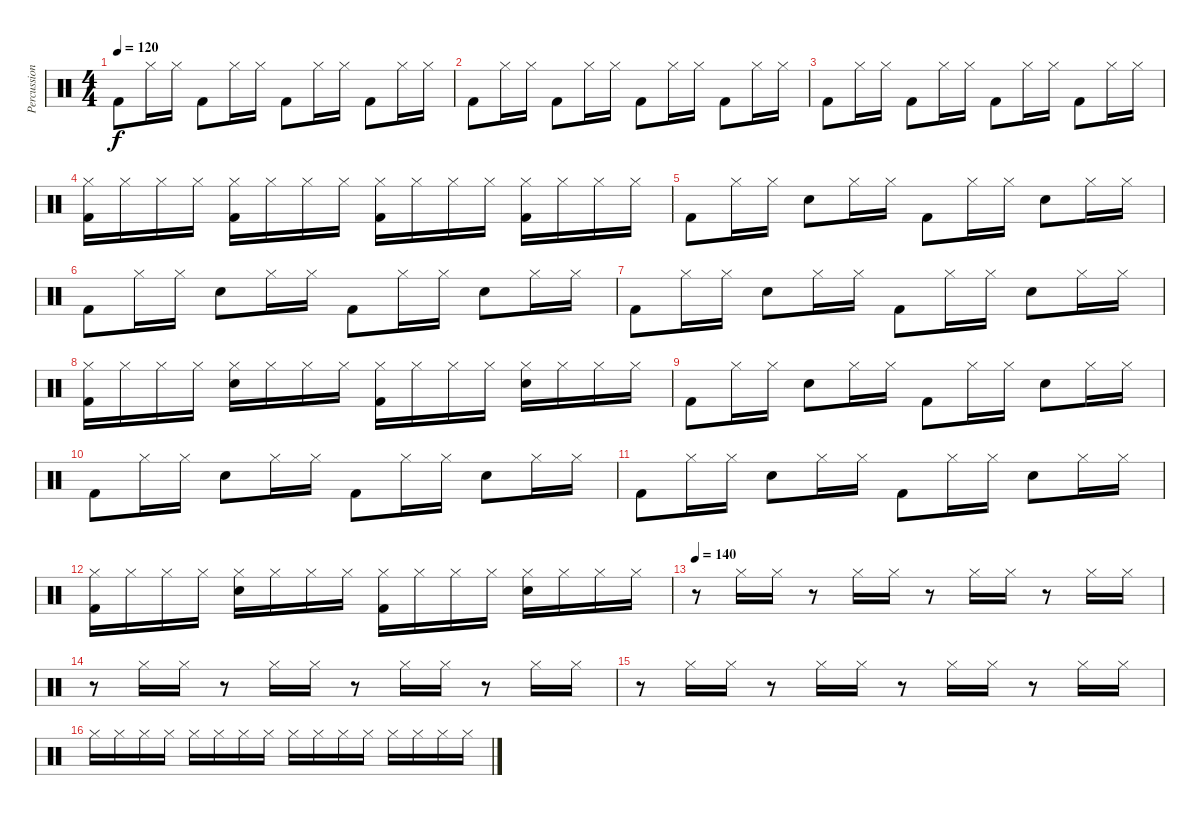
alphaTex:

\track ("Percussion" "Percussion") {instrument percussion}
\staff {score}
\articulation defaults
\ts (4 4)
\tempo 120
\clef neutral
\ks c "Kick (hit) 2".8{dy f} "Hi-Hat (closed)".16 "Hi-Hat (closed)".16 "Kick (hit) 2".8 "Hi-Hat (closed)".16 "Hi-Hat (closed)".16 "Kick (hit) 2".8 "Hi-Hat (closed)".16 "Hi-Hat (closed)".16 "Kick (hit) 2".8 "Hi-Hat (closed)".16 "Hi-Hat (closed)".16
|
"Kick (hit) 2".8 "Hi-Hat (closed)".16 "Hi-Hat (closed)".16 "Kick (hit) 2".8 "Hi-Hat (closed)".16 "Hi-Hat (closed)".16 "Kick (hit) 2".8 "Hi-Hat (closed)".16 "Hi-Hat (closed)".16 "Kick (hit) 2".8 "Hi-Hat (closed)".16 "Hi-Hat (closed)".16 |
"Kick (hit) 2".8 "Hi-Hat (closed)".16 "Hi-Hat (closed)".16 "Kick (hit) 2".8 "Hi-Hat (closed)".16 "Hi-Hat (closed)".16 "Kick (hit) 2".8 "Hi-Hat (closed)".16 "Hi-Hat (closed)".16 "Kick (hit) 2".8 "Hi-Hat (closed)".16 "Hi-Hat (closed)".16 |
("Hi-Hat (closed)" "Kick (hit) 2").16 "Hi-Hat (closed)".16 "Hi-Hat (closed)".16 "Hi-Hat (closed)".16 ("Hi-Hat (closed)" "Kick (hit) 2").16 "Hi-Hat (closed)".16 "Hi-Hat (closed)".16 "Hi-Hat (closed)".16 ("Hi-Hat (closed)" "Kick (hit) 2").16 "Hi-Hat (closed)".16 "Hi-Hat (closed)".16 "Hi-Hat (closed)".16 ("Hi-Hat (closed)" "Kick (hit) 2").16 "Hi-Hat (closed)".16 "Hi-Hat (closed)".16 "Hi-Hat (closed)".16 |
"Kick (hit) 2".8 "Hi-Hat (closed)".16 "Hi-Hat (closed)".16 "Snare (hit) 2".8 "Hi-Hat (closed)".16 "Hi-Hat (closed)".16 "Kick (hit) 2".8 "Hi-Hat (closed)".16 "Hi-Hat (closed)".16 "Snare (hit) 2".8 "Hi-Hat (closed)".16 "Hi-Hat (closed)".16 |
"Kick (hit) 2".8 "Hi-Hat (closed)".16 "Hi-Hat (closed)".16 "Snare (hit) 2".8 "Hi-Hat (closed)".16 "Hi-Hat (closed)".16 "Kick (hit) 2".8 "Hi-Hat (closed)".16 "Hi-Hat (closed)".16 "Snare (hit) 2".8 "Hi-Hat (closed)".16 "Hi-Hat (closed)".16 |
"Kick (hit) 2".8 "Hi-Hat (closed)".16 "Hi-Hat (closed)".16 "Snare (hit) 2".8 "Hi-Hat (closed)".16 "Hi-Hat (closed)".16 "Kick (hit) 2".8 "Hi-Hat (closed)".16 "Hi-Hat (closed)".16 "Snare (hit) 2".8 "Hi-Hat (closed)".16 "Hi-Hat (closed)".16 |
("Hi-Hat (closed)" "Kick (hit) 2").16 "Hi-Hat (closed)".16 "Hi-Hat (closed)".16 "Hi-Hat (closed)".16 ("Hi-Hat (closed)" "Snare (hit) 2").16 "Hi-Hat (closed)".16 "Hi-Hat (closed)".16 "Hi-Hat (closed)".16 ("Hi-Hat (closed)" "Kick (hit) 2").16 "Hi-Hat (closed)".16 "Hi-Hat (closed)".16 "Hi-Hat (closed)".16 ("Hi-Hat (closed)" "Snare (hit) 2").16 "Hi-Hat (closed)".16 "Hi-Hat (closed)".16 "Hi-Hat (closed)".16 |
"Kick (hit) 2".8 "Hi-Hat (closed)".16 "Hi-Hat (closed)".16 "Snare (hit) 2".8 "Hi-Hat (closed)".16 "Hi-Hat (closed)".16 "Kick (hit) 2".8 "Hi-Hat (closed)".16 "Hi-Hat (closed)".16 "Snare (hit) 2".8 "Hi-Hat (closed)".16 "Hi-Hat (closed)".16 |
"Kick (hit) 2".8 "Hi-Hat (closed)".16 "Hi-Hat (closed)".16 "Snare (hit) 2".8 "Hi-Hat (closed)".16 "Hi-Hat (closed)".16 "Kick (hit) 2".8 "Hi-Hat (closed)".16 "Hi-Hat (closed)".16 "Snare (hit) 2".8 "Hi-Hat (closed)".16 "Hi-Hat (closed)".16 |
"Kick (hit) 2".8 "Hi-Hat (closed)".16 "Hi-Hat (closed)".16 "Snare (hit) 2".8 "Hi-Hat (closed)".16 "Hi-Hat (closed)".16 "Kick (hit) 2".8 "Hi-Hat (closed)".16 "Hi-Hat (closed)".16 "Snare (hit) 2".8 "Hi-Hat (closed)".16 "Hi-Hat (closed)".16 |
("Hi-Hat (closed)" "Kick (hit) 2").16 "Hi-Hat (closed)".16 "Hi-Hat (closed)".16 "Hi-Hat (closed)".16 ("Hi-Hat (closed)" "Snare (hit) 2").16 "Hi-Hat (closed)".16 "Hi-Hat (closed)".16 "Hi-Hat (closed)".16 ("Hi-Hat (closed)" "Kick (hit) 2").16 "Hi-Hat (closed)".16 "Hi-Hat (closed)".16 "Hi-Hat (closed)".16 ("Hi-Hat (closed)" "Snare (hit) 2").16 "Hi-Hat (closed)".16 "Hi-Hat (closed)".16 "Hi-Hat (closed)".16 |
\tempo 140
r.8 "Hi-Hat (closed)".16 "Hi-Hat (closed)".16 r.8 "Hi-Hat (closed)".16 "Hi-Hat (closed)".16 r.8 "Hi-Hat (closed)".16 "Hi-Hat (closed)".16 r.8 "Hi-Hat (closed)".16 "Hi-Hat (closed)".16 |
r.8 "Hi-Hat (closed)".16 "Hi-Hat (closed)".16 r.8 "Hi-Hat (closed)".16 "Hi-Hat (closed)".16 r.8 "Hi-Hat (closed)".16 "Hi-Hat (closed)".16 r.8 "Hi-Hat (closed)".16 "Hi-Hat (closed)".16 |
r.8 "Hi-Hat (closed)".16 "Hi-Hat (closed)".16 r.8 "Hi-Hat (closed)".16 "Hi-Hat (closed)".16 r.8 "Hi-Hat (closed)".16 "Hi-Hat (closed)".16 r.8 "Hi-Hat (closed)".16 "Hi-Hat (closed)".16 |
"Hi-Hat (closed)".16 "Hi-Hat (closed)".16 "Hi-Hat (closed)".16 "Hi-Hat (closed)".16 "Hi-Hat (closed)".16 "Hi-Hat (closed)".16 "Hi-Hat (closed)".16 "Hi-Hat (closed)".16 "Hi-Hat (closed)".16 "Hi-Hat (closed)".16 "Hi-Hat (closed)".16 "Hi-Hat (closed)".16 "Hi-Hat (closed)".16 "Hi-Hat (closed)".16 "Hi-Hat (closed)".16 "Hi-Hat (closed)".16
